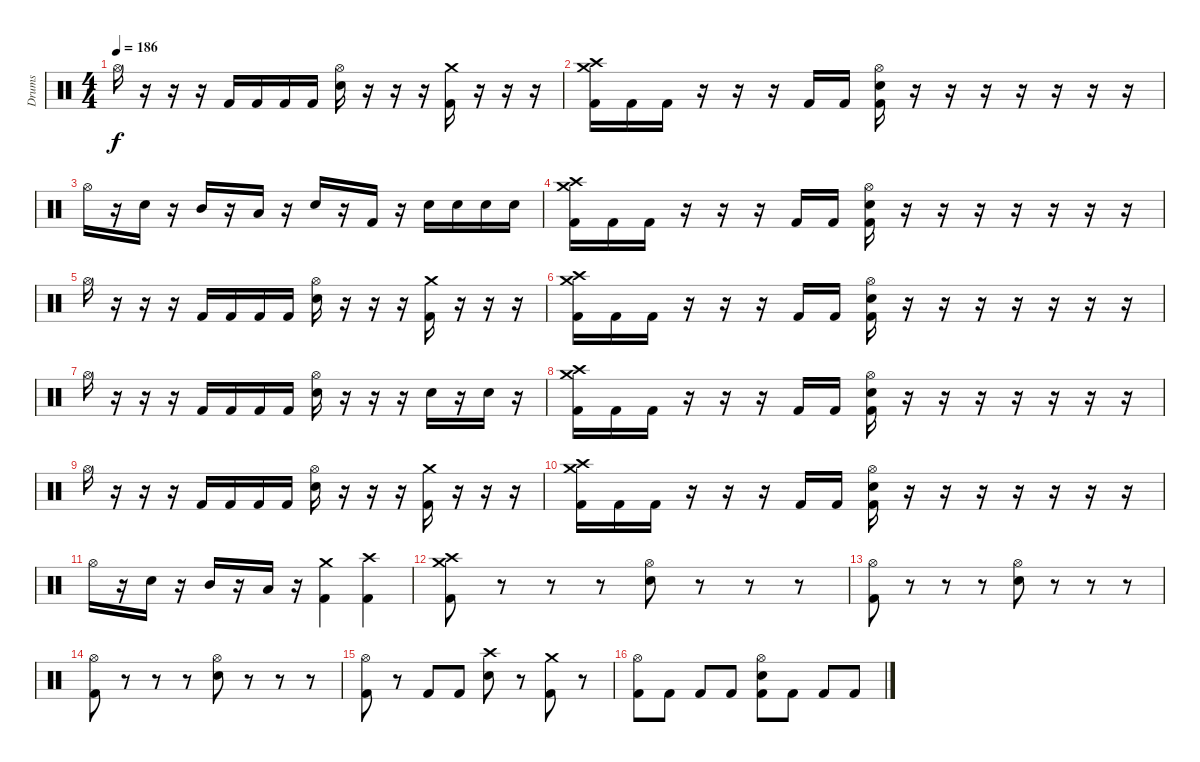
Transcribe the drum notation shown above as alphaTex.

\track ("Drums" "Drums") {instrument percussion}
\staff {score}
\articulation defaults
\ts (4 4)
\tempo 186
\clef neutral
\ks c "Hi-Hat (open)".16{dy f}
r.16 r.16 r.16 "Kick (hit) 2".16 "Kick (hit) 2".16 "Kick (hit) 2".16 "Kick (hit) 2".16 ("Hi-Hat (open)" "Snare (hit) 2").16 r.16 r.16 r.16 ("Crash medium (hit)" "Kick (hit) 2").16 r.16 r.16 r.16 |
("Crash high (hit)" "Crash medium (hit)" "Kick (hit) 2").16 "Kick (hit) 2".16 "Kick (hit) 2".16 r.16 r.16 r.16 "Kick (hit) 2".16 "Kick (hit) 2".16 ("Hi-Hat (open)" "Snare (hit) 2" "Kick (hit) 2").16 r.16 r.16 r.16 r.16 r.16 r.16 r.16 |
"Hi-Hat (open)".16 r.16 "Snare (hit) 2".16 r.16 "Mid Tom (hit)".16 r.16 "Low Tom (hit)".16 r.16 "Snare (hit) 2".16 r.16 "Kick (hit) 2".16 r.16 "Snare (hit) 2".16 "Snare (hit) 2".16 "Snare (hit) 2".16 "Snare (hit) 2".16 |
("Crash high (hit)" "Crash medium (hit)" "Kick (hit) 2").16 "Kick (hit) 2".16 "Kick (hit) 2".16 r.16 r.16 r.16 "Kick (hit) 2".16 "Kick (hit) 2".16 ("Hi-Hat (open)" "Snare (hit) 2" "Kick (hit) 2").16 r.16 r.16 r.16 r.16 r.16 r.16 r.16 |
"Hi-Hat (open)".16 r.16 r.16 r.16 "Kick (hit) 2".16 "Kick (hit) 2".16 "Kick (hit) 2".16 "Kick (hit) 2".16 ("Hi-Hat (open)" "Snare (hit) 2").16 r.16 r.16 r.16 ("Crash medium (hit)" "Kick (hit) 2").16 r.16 r.16 r.16 |
("Crash high (hit)" "Crash medium (hit)" "Kick (hit) 2").16 "Kick (hit) 2".16 "Kick (hit) 2".16 r.16 r.16 r.16 "Kick (hit) 2".16 "Kick (hit) 2".16 ("Hi-Hat (open)" "Snare (hit) 2" "Kick (hit) 2").16 r.16 r.16 r.16 r.16 r.16 r.16 r.16 |
"Hi-Hat (open)".16 r.16 r.16 r.16 "Kick (hit) 2".16 "Kick (hit) 2".16 "Kick (hit) 2".16 "Kick (hit) 2".16 ("Hi-Hat (open)" "Snare (hit) 2").16 r.16 r.16 r.16 "Snare (hit) 2".16 r.16 "Snare (hit) 2".16 r.16 |
("Crash high (hit)" "Crash medium (hit)" "Kick (hit) 2").16 "Kick (hit) 2".16 "Kick (hit) 2".16 r.16 r.16 r.16 "Kick (hit) 2".16 "Kick (hit) 2".16 ("Hi-Hat (open)" "Snare (hit) 2" "Kick (hit) 2").16 r.16 r.16 r.16 r.16 r.16 r.16 r.16 |
"Hi-Hat (open)".16 r.16 r.16 r.16 "Kick (hit) 2".16 "Kick (hit) 2".16 "Kick (hit) 2".16 "Kick (hit) 2".16 ("Hi-Hat (open)" "Snare (hit) 2").16 r.16 r.16 r.16 ("Crash medium (hit)" "Kick (hit) 2").16 r.16 r.16 r.16 |
("Crash high (hit)" "Crash medium (hit)" "Kick (hit) 2").16 "Kick (hit) 2".16 "Kick (hit) 2".16 r.16 r.16 r.16 "Kick (hit) 2".16 "Kick (hit) 2".16 ("Hi-Hat (open)" "Snare (hit) 2" "Kick (hit) 2").16 r.16 r.16 r.16 r.16 r.16 r.16 r.16 |
"Hi-Hat (open)".16 r.16 "Snare (hit) 2".16 r.16 "Mid Tom (hit)".16 r.16 "Low Tom (hit)".16 r.16 ("Crash medium (hit)" "Kick (hit) 2").4 ("Crash high (hit)" "Kick (hit) 2").4 |
("Crash high (hit)" "Crash medium (hit)" "Kick (hit) 2").8 r.8 r.8 r.8 ("Hi-Hat (open)" "Snare (hit) 2").8 r.8 r.8 r.8 |
("Hi-Hat (open)" "Kick (hit) 2").8 r.8 r.8 r.8 ("Hi-Hat (open)" "Snare (hit) 2").8 r.8 r.8 r.8 |
("Hi-Hat (open)" "Kick (hit) 2").8 r.8 r.8 r.8 ("Hi-Hat (open)" "Snare (hit) 2").8 r.8 r.8 r.8 |
("Hi-Hat (open)" "Kick (hit) 2").8 r.8 "Kick (hit) 2".8 "Kick (hit) 2".8 ("Crash high (hit)" "Snare (hit) 2").8 r.8 ("Crash medium (hit)" "Kick (hit) 2").8 r.8 |
("Hi-Hat (open)" "Kick (hit) 2").8 "Kick (hit) 2".8 "Kick (hit) 2".8 "Kick (hit) 2".8 ("Hi-Hat (open)" "Snare (hit) 2" "Kick (hit) 2").8 "Kick (hit) 2".8 "Kick (hit) 2".8 "Kick (hit) 2".8
